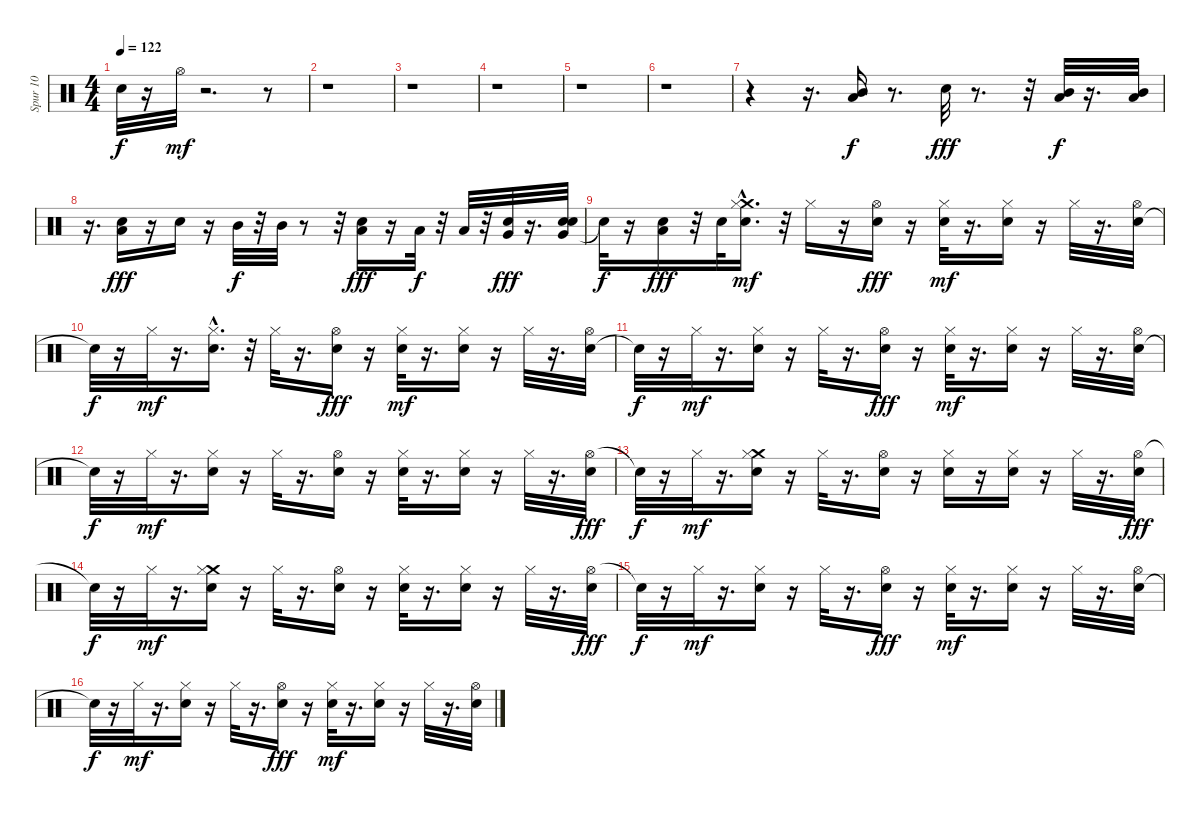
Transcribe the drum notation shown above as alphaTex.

\track ("Spur 10" "Spur 10") {instrument percussion}
\staff {score}
\articulation defaults
\ts (4 4)
\tempo 122
\clef neutral
\ks c "Snare (hit)"{t}.32{dy f}
r.16 "Hi-Hat (open)".32{dy mf} r.2{d} r.8 |
r.1 |
r.1 |
r.1 |
r.1 |
r.1 |
r.4 r.16{d} ("Mid Tom (hit)" "Low Tom (hit)").16{dy f} r.8{d} "Snare (hit) 2".32{dy fff} r.8{d} r.32 ("Low Tom (hit)" "Mid Tom (hit)").32{dy f} r.16{d} ("Mid Tom (hit)" "Low Tom (hit)").32 |
r.16{d} ("Low Tom (hit)" "Snare (hit)").16{dy fff} r.16 "Snare (hit) 2".16 r.16 "Mid Tom (hit)".32{dy f} r.32 "Mid Tom (hit)".32 r.8 r.32 ("Low Tom (hit)" "Snare (hit) 2").16{dy fff} r.16 "Low Tom (hit)".32{dy f} r.32 "Low Tom (hit)".32 r.32 ("Very Low Tom (hit)" "Snare (hit)").32{dy fff} r.16{d} ("Very Low Tom (hit)" "Snare (hit) 2" "Snare (hit)").32 |
"Snare (hit)"{t}.32{dy f} r.16 ("Snare (hit)" "Low Floor Tom (hit)").16{dy fff} r.32 "Snare (hit) 2".32 ("Snare (hit)"{hac} "Crash medium (hit)" "Hi-Hat (closed)").16{d dy mf} r.32 "Hi-Hat (closed)".16 r.16 ("Hi-Hat (open)" "Snare (hit) 2").16{dy fff} r.16 ("Snare (hit)" "Hi-Hat (closed)").32{dy mf} r.16{d} ("Snare (hit)" "Hi-Hat (closed)").16 r.16 "Hi-Hat (closed)".32 r.16{d} ("Snare (hit) 2" "Hi-Hat (open)").32 |
"Snare (hit)"{t}.32{dy f} r.16 "Hi-Hat (closed)".32{dy mf} r.16{d} ("Snare (hit)"{hac} "Hi-Hat (closed)").16{d} r.32 "Hi-Hat (closed)".32 r.16{d} ("Hi-Hat (open)" "Snare (hit) 2").16{dy fff} r.16 ("Snare (hit)" "Hi-Hat (closed)").32{dy mf} r.16{d} ("Snare (hit)" "Hi-Hat (closed)").16 r.16 "Hi-Hat (closed)".32 r.16{d} ("Snare (hit) 2" "Hi-Hat (open)").32 |
"Snare (hit)"{t}.32{dy f} r.16 "Hi-Hat (closed)".32{dy mf} r.16{d} ("Snare (hit)" "Hi-Hat (closed)").16 r.16 "Hi-Hat (closed)".32 r.16{d} ("Hi-Hat (open)" "Snare (hit) 2").16{dy fff} r.16 ("Snare (hit)" "Hi-Hat (closed)").32{dy mf} r.16{d} ("Snare (hit)" "Hi-Hat (closed)").16 r.16 "Hi-Hat (closed)".32 r.16{d} ("Snare (hit) 2" "Hi-Hat (open)").32 |
"Snare (hit)"{t}.32{dy f} r.16 "Hi-Hat (closed)".32{dy mf} r.16{d} ("Snare (hit)" "Hi-Hat (closed)").16 r.16 "Hi-Hat (closed)".32 r.16{d} ("Snare (hit) 2" "Hi-Hat (open)").16 r.16 ("Snare (hit)" "Hi-Hat (closed)").32 r.16{d} ("Snare (hit)" "Hi-Hat (closed)").16 r.16 "Hi-Hat (closed)".32 r.16{d} ("Hi-Hat (open)" "Snare (hit) 2").32{dy fff} |
"Snare (hit)"{t}.32{dy f} r.16 "Hi-Hat (closed)".32{dy mf} r.16{d} ("Crash medium (hit)" "Snare (hit)" "Hi-Hat (closed)").16 r.16 "Hi-Hat (closed)".32 r.16{d} ("Snare (hit) 2" "Hi-Hat (open)").16 r.16 ("Snare (hit)" "Hi-Hat (closed)").16 r.16 ("Snare (hit)" "Hi-Hat (closed)").16 r.16 "Hi-Hat (closed)".32 r.16{d} ("Hi-Hat (open)" "Snare (hit) 2").32{dy fff} |
"Snare (hit)"{t}.32{dy f} r.16 "Hi-Hat (closed)".32{dy mf} r.16{d} ("Snare (hit)" "Crash medium (hit)" "Hi-Hat (closed)").16 r.16 "Hi-Hat (closed)".32 r.16{d} ("Snare (hit) 2" "Hi-Hat (open)").16 r.16 ("Snare (hit)" "Hi-Hat (closed)").32 r.16{d} ("Snare (hit)" "Hi-Hat (closed)").16 r.16 "Hi-Hat (closed)".32 r.16{d} ("Hi-Hat (open)" "Snare (hit) 2").32{dy fff} |
"Snare (hit)"{t}.32{dy f} r.16 "Hi-Hat (closed)".32{dy mf} r.16{d} ("Snare (hit)" "Hi-Hat (closed)").16 r.16 "Hi-Hat (closed)".32 r.16{d} ("Hi-Hat (open)" "Snare (hit) 2").16{dy fff} r.16 ("Snare (hit)" "Hi-Hat (closed)").32{dy mf} r.16{d} ("Snare (hit)" "Hi-Hat (closed)").16 r.16 "Hi-Hat (closed)".32 r.16{d} ("Snare (hit) 2" "Hi-Hat (open)").32 |
"Snare (hit)"{t}.32{dy f} r.16 "Hi-Hat (closed)".32{dy mf} r.16{d} ("Snare (hit)" "Hi-Hat (closed)").16 r.16 "Hi-Hat (closed)".32 r.16{d} ("Hi-Hat (open)" "Snare (hit) 2").16{dy fff} r.16 ("Snare (hit)" "Hi-Hat (closed)").32{dy mf} r.16{d} ("Snare (hit)" "Hi-Hat (closed)").16 r.16 "Hi-Hat (closed)".32 r.16{d} ("Snare (hit) 2" "Hi-Hat (open)").32
